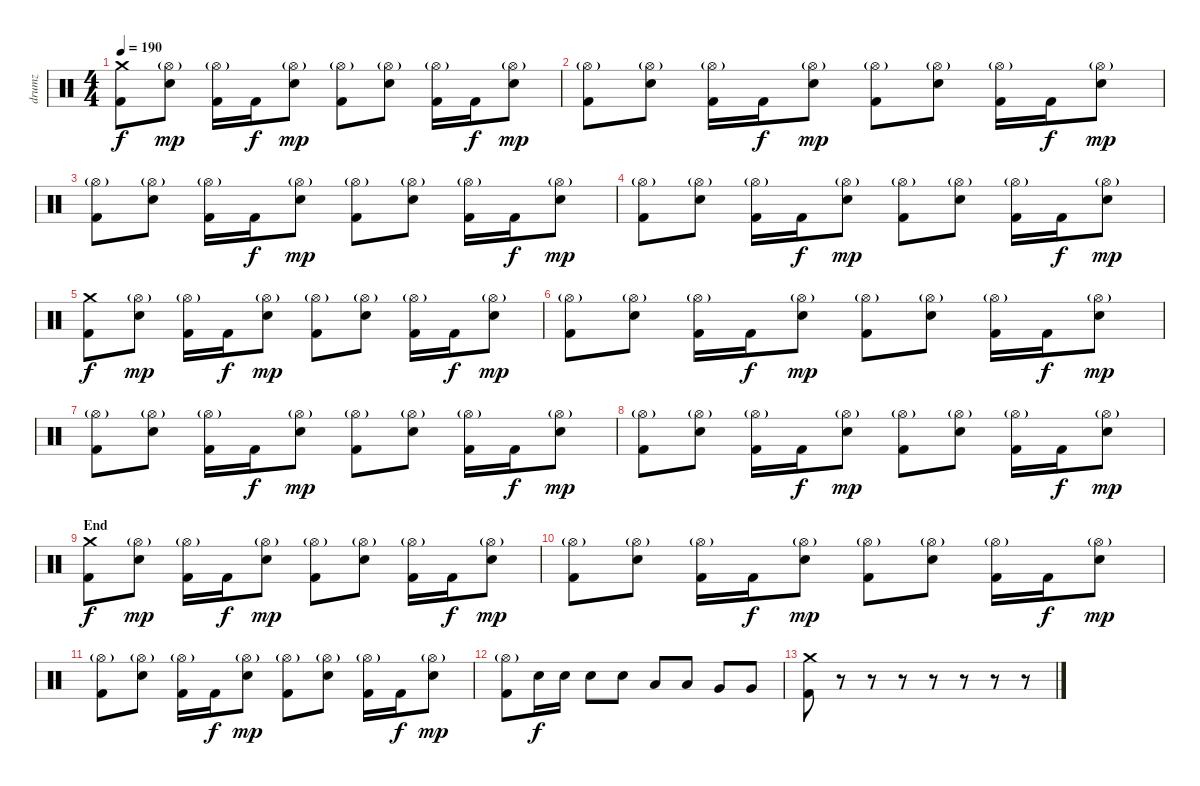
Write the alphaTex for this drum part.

\track ("drumz" "drumz") {instrument percussion}
\staff {score}
\articulation defaults
\ts (4 4)
\tempo 190
\clef neutral
\ks c
("Crash medium (hit)" "Kick (hit) 2").8{dy f} ("Hi-Hat (open)"{g} "Electric Snare (hit)").8{dy mp} ("Hi-Hat (open)"{g} "Kick (hit) 2").16 "Kick (hit) 2".16{dy f} ("Hi-Hat (open)"{g} "Electric Snare (hit)").8{dy mp} ("Hi-Hat (open)"{g} "Kick (hit) 2").8 ("Hi-Hat (open)"{g} "Electric Snare (hit)").8 ("Hi-Hat (open)"{g} "Kick (hit) 2").16 "Kick (hit) 2".16{dy f} ("Hi-Hat (open)"{g} "Electric Snare (hit)").8{dy mp} |
("Hi-Hat (open)"{g} "Kick (hit) 2").8 ("Hi-Hat (open)"{g} "Electric Snare (hit)").8 ("Hi-Hat (open)"{g} "Kick (hit) 2").16 "Kick (hit) 2".16{dy f} ("Hi-Hat (open)"{g} "Electric Snare (hit)").8{dy mp} ("Hi-Hat (open)"{g} "Kick (hit) 2").8 ("Hi-Hat (open)"{g} "Electric Snare (hit)").8 ("Hi-Hat (open)"{g} "Kick (hit) 2").16 "Kick (hit) 2".16{dy f} ("Hi-Hat (open)"{g} "Electric Snare (hit)").8{dy mp} |
("Hi-Hat (open)"{g} "Kick (hit) 2").8 ("Hi-Hat (open)"{g} "Electric Snare (hit)").8 ("Hi-Hat (open)"{g} "Kick (hit) 2").16 "Kick (hit) 2".16{dy f} ("Hi-Hat (open)"{g} "Electric Snare (hit)").8{dy mp} ("Hi-Hat (open)"{g} "Kick (hit) 2").8 ("Hi-Hat (open)"{g} "Electric Snare (hit)").8 ("Hi-Hat (open)"{g} "Kick (hit) 2").16 "Kick (hit) 2".16{dy f} ("Hi-Hat (open)"{g} "Electric Snare (hit)").8{dy mp} |
("Hi-Hat (open)"{g} "Kick (hit) 2").8 ("Hi-Hat (open)"{g} "Electric Snare (hit)").8 ("Hi-Hat (open)"{g} "Kick (hit) 2").16 "Kick (hit) 2".16{dy f} ("Hi-Hat (open)"{g} "Electric Snare (hit)").8{dy mp} ("Hi-Hat (open)"{g} "Kick (hit) 2").8 ("Hi-Hat (open)"{g} "Electric Snare (hit)").8 ("Hi-Hat (open)"{g} "Kick (hit) 2").16 "Kick (hit) 2".16{dy f} ("Hi-Hat (open)"{g} "Electric Snare (hit)").8{dy mp} |
("Crash medium (hit)" "Kick (hit) 2").8{dy f} ("Hi-Hat (open)"{g} "Electric Snare (hit)").8{dy mp} ("Hi-Hat (open)"{g} "Kick (hit) 2").16 "Kick (hit) 2".16{dy f} ("Hi-Hat (open)"{g} "Electric Snare (hit)").8{dy mp} ("Hi-Hat (open)"{g} "Kick (hit) 2").8 ("Hi-Hat (open)"{g} "Electric Snare (hit)").8 ("Hi-Hat (open)"{g} "Kick (hit) 2").16 "Kick (hit) 2".16{dy f} ("Hi-Hat (open)"{g} "Electric Snare (hit)").8{dy mp} |
("Hi-Hat (open)"{g} "Kick (hit) 2").8 ("Hi-Hat (open)"{g} "Electric Snare (hit)").8 ("Hi-Hat (open)"{g} "Kick (hit) 2").16 "Kick (hit) 2".16{dy f} ("Hi-Hat (open)"{g} "Electric Snare (hit)").8{dy mp} ("Hi-Hat (open)"{g} "Kick (hit) 2").8 ("Hi-Hat (open)"{g} "Electric Snare (hit)").8 ("Hi-Hat (open)"{g} "Kick (hit) 2").16 "Kick (hit) 2".16{dy f} ("Hi-Hat (open)"{g} "Electric Snare (hit)").8{dy mp} |
("Hi-Hat (open)"{g} "Kick (hit) 2").8 ("Hi-Hat (open)"{g} "Electric Snare (hit)").8 ("Hi-Hat (open)"{g} "Kick (hit) 2").16 "Kick (hit) 2".16{dy f} ("Hi-Hat (open)"{g} "Electric Snare (hit)").8{dy mp} ("Hi-Hat (open)"{g} "Kick (hit) 2").8 ("Hi-Hat (open)"{g} "Electric Snare (hit)").8 ("Hi-Hat (open)"{g} "Kick (hit) 2").16 "Kick (hit) 2".16{dy f} ("Hi-Hat (open)"{g} "Electric Snare (hit)").8{dy mp} |
("Hi-Hat (open)"{g} "Kick (hit) 2").8 ("Hi-Hat (open)"{g} "Electric Snare (hit)").8 ("Hi-Hat (open)"{g} "Kick (hit) 2").16 "Kick (hit) 2".16{dy f} ("Hi-Hat (open)"{g} "Electric Snare (hit)").8{dy mp} ("Hi-Hat (open)"{g} "Kick (hit) 2").8 ("Hi-Hat (open)"{g} "Electric Snare (hit)").8 ("Hi-Hat (open)"{g} "Kick (hit) 2").16 "Kick (hit) 2".16{dy f} ("Hi-Hat (open)"{g} "Electric Snare (hit)").8{dy mp} |
\section ("" "End")
("Crash medium (hit)" "Kick (hit) 2").8{dy f} ("Hi-Hat (open)"{g} "Electric Snare (hit)").8{dy mp} ("Hi-Hat (open)"{g} "Kick (hit) 2").16 "Kick (hit) 2".16{dy f} ("Hi-Hat (open)"{g} "Electric Snare (hit)").8{dy mp} ("Hi-Hat (open)"{g} "Kick (hit) 2").8 ("Hi-Hat (open)"{g} "Electric Snare (hit)").8 ("Hi-Hat (open)"{g} "Kick (hit) 2").16 "Kick (hit) 2".16{dy f} ("Hi-Hat (open)"{g} "Electric Snare (hit)").8{dy mp} |
("Hi-Hat (open)"{g} "Kick (hit) 2").8 ("Hi-Hat (open)"{g} "Electric Snare (hit)").8 ("Hi-Hat (open)"{g} "Kick (hit) 2").16 "Kick (hit) 2".16{dy f} ("Hi-Hat (open)"{g} "Electric Snare (hit)").8{dy mp} ("Hi-Hat (open)"{g} "Kick (hit) 2").8 ("Hi-Hat (open)"{g} "Electric Snare (hit)").8 ("Hi-Hat (open)"{g} "Kick (hit) 2").16 "Kick (hit) 2".16{dy f} ("Hi-Hat (open)"{g} "Electric Snare (hit)").8{dy mp} |
("Hi-Hat (open)"{g} "Kick (hit) 2").8 ("Hi-Hat (open)"{g} "Electric Snare (hit)").8 ("Hi-Hat (open)"{g} "Kick (hit) 2").16 "Kick (hit) 2".16{dy f} ("Hi-Hat (open)"{g} "Electric Snare (hit)").8{dy mp} ("Hi-Hat (open)"{g} "Kick (hit) 2").8 ("Hi-Hat (open)"{g} "Electric Snare (hit)").8 ("Hi-Hat (open)"{g} "Kick (hit) 2").16 "Kick (hit) 2".16{dy f} ("Hi-Hat (open)"{g} "Electric Snare (hit)").8{dy mp} |
("Hi-Hat (open)"{g} "Kick (hit) 2").8 "Electric Snare (hit)".16{dy f} "Electric Snare (hit)".16 "Electric Snare (hit)".8 "Electric Snare (hit)".8 "Low Tom (hit)".8 "Low Tom (hit)".8 "Very Low Tom (hit)".8 "Very Low Tom (hit)".8 |
("Crash medium (hit)" "Kick (hit) 2").8 r.8 r.8 r.8 r.8 r.8 r.8 r.8
